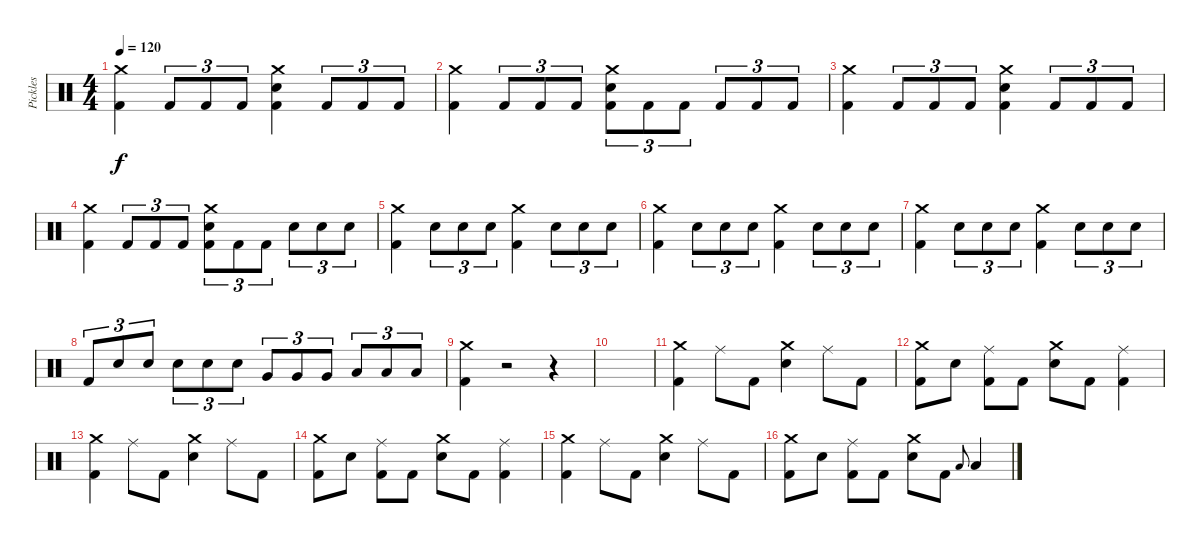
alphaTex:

\track ("Pickles" "Pickles") {instrument percussion}
\staff {score}
\articulation defaults
\ts (4 4)
\tempo 120
\clef neutral
\ks c
("Crash medium (hit)" "Kick (hit) 2").4{dy f} "Kick (hit) 2".8{tu (3 2)} "Kick (hit) 2".8{tu (3 2)} "Kick (hit) 2".8{tu (3 2)} ("Crash medium (hit)" "Electric Snare (hit)" "Kick (hit) 2").4 "Kick (hit) 2".8{tu (3 2)} "Kick (hit) 2".8{tu (3 2)} "Kick (hit) 2".8{tu (3 2)} |
("Crash medium (hit)" "Kick (hit) 2").4 "Kick (hit) 2".8{tu (3 2)} "Kick (hit) 2".8{tu (3 2)} "Kick (hit) 2".8{tu (3 2)} ("Crash medium (hit)" "Electric Snare (hit)" "Kick (hit) 2").8{tu (3 2)} "Kick (hit) 2".8{tu (3 2)} "Kick (hit) 2".8{tu (3 2)} "Kick (hit) 2".8{tu (3 2)} "Kick (hit) 2".8{tu (3 2)} "Kick (hit) 2".8{tu (3 2)} |
("Crash medium (hit)" "Kick (hit) 2").4 "Kick (hit) 2".8{tu (3 2)} "Kick (hit) 2".8{tu (3 2)} "Kick (hit) 2".8{tu (3 2)} ("Crash medium (hit)" "Electric Snare (hit)" "Kick (hit) 2").4 "Kick (hit) 2".8{tu (3 2)} "Kick (hit) 2".8{tu (3 2)} "Kick (hit) 2".8{tu (3 2)} |
("Crash medium (hit)" "Kick (hit) 2").4 "Kick (hit) 2".8{tu (3 2)} "Kick (hit) 2".8{tu (3 2)} "Kick (hit) 2".8{tu (3 2)} ("Crash medium (hit)" "Electric Snare (hit)" "Kick (hit) 2").8{tu (3 2)} "Kick (hit) 2".8{tu (3 2)} "Kick (hit) 2".8{tu (3 2)} "Electric Snare (hit)".8{tu (3 2)} "Electric Snare (hit)".8{tu (3 2)} "Electric Snare (hit)".8{tu (3 2)} |
("Crash medium (hit)" "Kick (hit) 2").4 "Electric Snare (hit)".8{tu (3 2)} "Electric Snare (hit)".8{tu (3 2)} "Electric Snare (hit)".8{tu (3 2)} ("Crash medium (hit)" "Kick (hit) 2").4 "Electric Snare (hit)".8{tu (3 2)} "Electric Snare (hit)".8{tu (3 2)} "Electric Snare (hit)".8{tu (3 2)} |
("Crash medium (hit)" "Kick (hit) 2").4 "Electric Snare (hit)".8{tu (3 2)} "Electric Snare (hit)".8{tu (3 2)} "Electric Snare (hit)".8{tu (3 2)} ("Crash medium (hit)" "Kick (hit) 2").4 "Electric Snare (hit)".8{tu (3 2)} "Electric Snare (hit)".8{tu (3 2)} "Electric Snare (hit)".8{tu (3 2)} |
("Crash medium (hit)" "Kick (hit) 2").4 "Electric Snare (hit)".8{tu (3 2)} "Electric Snare (hit)".8{tu (3 2)} "Electric Snare (hit)".8{tu (3 2)} ("Crash medium (hit)" "Kick (hit) 2").4 "Electric Snare (hit)".8{tu (3 2)} "Electric Snare (hit)".8{tu (3 2)} "Electric Snare (hit)".8{tu (3 2)} |
"Kick (hit) 2".8{tu (3 2)} "Electric Snare (hit)".8{tu (3 2)} "Electric Snare (hit)".8{tu (3 2)} "Electric Snare (hit)".8{tu (3 2)} "Electric Snare (hit)".8{tu (3 2)} "Electric Snare (hit)".8{tu (3 2)} "Very Low Tom (hit)".8{tu (3 2)} "Very Low Tom (hit)".8{tu (3 2)} "Very Low Tom (hit)".8{tu (3 2)} "Low Tom (hit)".8{tu (3 2)} "Low Tom (hit)".8{tu (3 2)} "Low Tom (hit)".8{tu (3 2)} |
("Crash medium (hit)" "Kick (hit) 2").4 r.2 r.4 |
|
("Crash medium (hit)" "Kick (hit) 2").4 "Ride (middle)".8 "Kick (hit) 2".8 ("Crash medium (hit)" "Electric Snare (hit)").4 "Ride (middle)".8 "Kick (hit) 2".8 |
("Crash medium (hit)" "Kick (hit) 2").8 "Electric Snare (hit)".8 ("Ride (middle)" "Kick (hit) 2").8 "Kick (hit) 2".8 ("Crash medium (hit)" "Electric Snare (hit)").8 "Kick (hit) 2".8 ("Ride (middle)" "Kick (hit) 2").4 |
("Crash medium (hit)" "Kick (hit) 2").4 "Ride (middle)".8 "Kick (hit) 2".8 ("Crash medium (hit)" "Electric Snare (hit)").4 "Ride (middle)".8 "Kick (hit) 2".8 |
("Crash medium (hit)" "Kick (hit) 2").8 "Electric Snare (hit)".8 ("Ride (middle)" "Kick (hit) 2").8 "Kick (hit) 2".8 ("Crash medium (hit)" "Electric Snare (hit)").8 "Kick (hit) 2".8 ("Ride (middle)" "Kick (hit) 2").4 |
("Crash medium (hit)" "Kick (hit) 2").4 "Ride (middle)".8 "Kick (hit) 2".8 ("Crash medium (hit)" "Electric Snare (hit)").4 "Ride (middle)".8 "Kick (hit) 2".8 |
("Crash medium (hit)" "Kick (hit) 2").8 "Electric Snare (hit)".8 ("Ride (middle)" "Kick (hit) 2").8 "Kick (hit) 2".8 ("Crash medium (hit)" "Electric Snare (hit)").8 "Kick (hit) 2".8 "Low Tom (hit)".8{gr onbeat} "Low Tom (hit)".4
